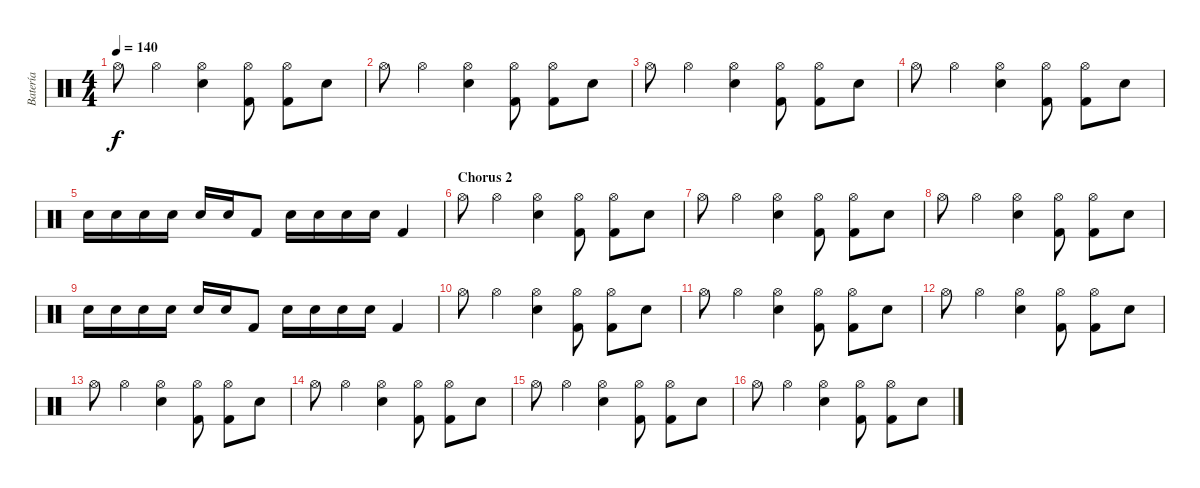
\track ("Batería" "Batería") {instrument percussion}
\staff {score}
\articulation defaults
\ts (4 4)
\tempo 140
\clef neutral
\ks c "Hi-Hat (open)".8{dy f} "Hi-Hat (open)".4
("Hi-Hat (open)" "Snare (hit) 2").4 ("Hi-Hat (open)" "Kick (hit) 2").8 ("Hi-Hat (open)" "Kick (hit) 2").8 "Snare (hit) 2".8 |
"Hi-Hat (open)".8 "Hi-Hat (open)".4 ("Hi-Hat (open)" "Snare (hit) 2").4 ("Hi-Hat (open)" "Kick (hit) 2").8 ("Hi-Hat (open)" "Kick (hit) 2").8 "Snare (hit) 2".8 |
"Hi-Hat (open)".8 "Hi-Hat (open)".4 ("Hi-Hat (open)" "Snare (hit) 2").4 ("Hi-Hat (open)" "Kick (hit) 2").8 ("Hi-Hat (open)" "Kick (hit) 2").8 "Snare (hit) 2".8 |
"Hi-Hat (open)".8 "Hi-Hat (open)".4 ("Hi-Hat (open)" "Snare (hit) 2").4 ("Hi-Hat (open)" "Kick (hit) 2").8 ("Hi-Hat (open)" "Kick (hit) 2").8 "Snare (hit) 2".8 |
"Snare (hit) 2".16 "Snare (hit) 2".16 "Snare (hit) 2".16 "Snare (hit) 2".16 "Snare (hit) 2".16 "Snare (hit) 2".16 "Kick (hit) 2".8 "Snare (hit) 2".16 "Snare (hit) 2".16 "Snare (hit) 2".16 "Snare (hit) 2".16 "Kick (hit) 2".4 |
\section ("" "Chorus 2")
"Hi-Hat (open)".8 "Hi-Hat (open)".4 ("Hi-Hat (open)" "Snare (hit) 2").4 ("Hi-Hat (open)" "Kick (hit) 2").8 ("Hi-Hat (open)" "Kick (hit) 2").8 "Snare (hit) 2".8 |
"Hi-Hat (open)".8 "Hi-Hat (open)".4 ("Hi-Hat (open)" "Snare (hit) 2").4 ("Hi-Hat (open)" "Kick (hit) 2").8 ("Hi-Hat (open)" "Kick (hit) 2").8 "Snare (hit) 2".8 |
"Hi-Hat (open)".8 "Hi-Hat (open)".4 ("Hi-Hat (open)" "Snare (hit) 2").4 ("Hi-Hat (open)" "Kick (hit) 2").8 ("Hi-Hat (open)" "Kick (hit) 2").8 "Snare (hit) 2".8 |
"Snare (hit) 2".16 "Snare (hit) 2".16 "Snare (hit) 2".16 "Snare (hit) 2".16 "Snare (hit) 2".16 "Snare (hit) 2".16 "Kick (hit) 2".8 "Snare (hit) 2".16 "Snare (hit) 2".16 "Snare (hit) 2".16 "Snare (hit) 2".16 "Kick (hit) 2".4 |
"Hi-Hat (open)".8 "Hi-Hat (open)".4 ("Hi-Hat (open)" "Snare (hit) 2").4 ("Hi-Hat (open)" "Kick (hit) 2").8 ("Hi-Hat (open)" "Kick (hit) 2").8 "Snare (hit) 2".8 |
"Hi-Hat (open)".8 "Hi-Hat (open)".4 ("Hi-Hat (open)" "Snare (hit) 2").4 ("Hi-Hat (open)" "Kick (hit) 2").8 ("Hi-Hat (open)" "Kick (hit) 2").8 "Snare (hit) 2".8 |
"Hi-Hat (open)".8 "Hi-Hat (open)".4 ("Hi-Hat (open)" "Snare (hit) 2").4 ("Hi-Hat (open)" "Kick (hit) 2").8 ("Hi-Hat (open)" "Kick (hit) 2").8 "Snare (hit) 2".8 |
"Hi-Hat (open)".8 "Hi-Hat (open)".4 ("Hi-Hat (open)" "Snare (hit) 2").4 ("Hi-Hat (open)" "Kick (hit) 2").8 ("Hi-Hat (open)" "Kick (hit) 2").8 "Snare (hit) 2".8 |
"Hi-Hat (open)".8 "Hi-Hat (open)".4 ("Hi-Hat (open)" "Snare (hit) 2").4 ("Hi-Hat (open)" "Kick (hit) 2").8 ("Hi-Hat (open)" "Kick (hit) 2").8 "Snare (hit) 2".8 |
"Hi-Hat (open)".8 "Hi-Hat (open)".4 ("Hi-Hat (open)" "Snare (hit) 2").4 ("Hi-Hat (open)" "Kick (hit) 2").8 ("Hi-Hat (open)" "Kick (hit) 2").8 "Snare (hit) 2".8 |
"Hi-Hat (open)".8 "Hi-Hat (open)".4 ("Hi-Hat (open)" "Snare (hit) 2").4 ("Hi-Hat (open)" "Kick (hit) 2").8 ("Hi-Hat (open)" "Kick (hit) 2").8 "Snare (hit) 2".8
